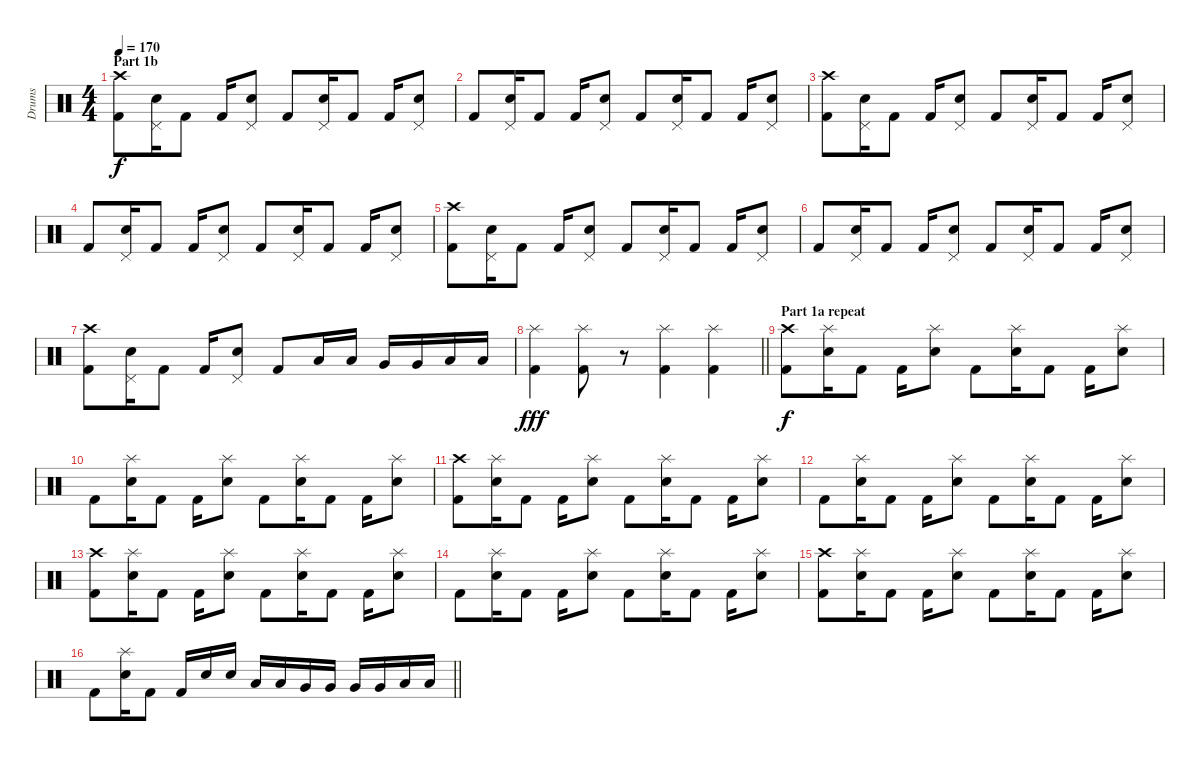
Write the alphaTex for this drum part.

\track ("Drums" "Drums") {instrument percussion}
\staff {score}
\articulation defaults
\ts (4 4)
\section ("" "Part 1b")
\tempo 170
\clef neutral
\ks c
("Kick (hit) 2" "Crash high (hit)").8{dy f} ("Electric Snare (hit)" "Pedal Hi-Hat (hit)").16 "Kick (hit) 2".8 "Kick (hit) 2".16 ("Electric Snare (hit)" "Pedal Hi-Hat (hit)").8 "Kick (hit) 2".8 ("Electric Snare (hit)" "Pedal Hi-Hat (hit)").16 "Kick (hit) 2".8 "Kick (hit) 2".16 ("Electric Snare (hit)" "Pedal Hi-Hat (hit)").8 |
"Kick (hit) 2".8 ("Electric Snare (hit)" "Pedal Hi-Hat (hit)").16 "Kick (hit) 2".8 "Kick (hit) 2".16 ("Electric Snare (hit)" "Pedal Hi-Hat (hit)").8 "Kick (hit) 2".8 ("Electric Snare (hit)" "Pedal Hi-Hat (hit)").16 "Kick (hit) 2".8 "Kick (hit) 2".16 ("Electric Snare (hit)" "Pedal Hi-Hat (hit)").8 |
("Kick (hit) 2" "Crash high (hit)").8 ("Electric Snare (hit)" "Pedal Hi-Hat (hit)").16 "Kick (hit) 2".8 "Kick (hit) 2".16 ("Electric Snare (hit)" "Pedal Hi-Hat (hit)").8 "Kick (hit) 2".8 ("Electric Snare (hit)" "Pedal Hi-Hat (hit)").16 "Kick (hit) 2".8 "Kick (hit) 2".16 ("Electric Snare (hit)" "Pedal Hi-Hat (hit)").8 |
"Kick (hit) 2".8 ("Electric Snare (hit)" "Pedal Hi-Hat (hit)").16 "Kick (hit) 2".8 "Kick (hit) 2".16 ("Electric Snare (hit)" "Pedal Hi-Hat (hit)").8 "Kick (hit) 2".8 ("Electric Snare (hit)" "Pedal Hi-Hat (hit)").16 "Kick (hit) 2".8 "Kick (hit) 2".16 ("Electric Snare (hit)" "Pedal Hi-Hat (hit)").8 |
("Kick (hit) 2" "Crash high (hit)").8 ("Electric Snare (hit)" "Pedal Hi-Hat (hit)").16 "Kick (hit) 2".8 "Kick (hit) 2".16 ("Electric Snare (hit)" "Pedal Hi-Hat (hit)").8 "Kick (hit) 2".8 ("Electric Snare (hit)" "Pedal Hi-Hat (hit)").16 "Kick (hit) 2".8 "Kick (hit) 2".16 ("Electric Snare (hit)" "Pedal Hi-Hat (hit)").8 |
"Kick (hit) 2".8 ("Electric Snare (hit)" "Pedal Hi-Hat (hit)").16 "Kick (hit) 2".8 "Kick (hit) 2".16 ("Electric Snare (hit)" "Pedal Hi-Hat (hit)").8 "Kick (hit) 2".8 ("Electric Snare (hit)" "Pedal Hi-Hat (hit)").16 "Kick (hit) 2".8 "Kick (hit) 2".16 ("Electric Snare (hit)" "Pedal Hi-Hat (hit)").8 |
("Kick (hit) 2" "Crash high (hit)").8 ("Electric Snare (hit)" "Pedal Hi-Hat (hit)").16 "Kick (hit) 2".8 "Kick (hit) 2".16 ("Electric Snare (hit)" "Pedal Hi-Hat (hit)").8 "Kick (hit) 2".8 "Low Tom (hit)".16 "Low Tom (hit)".16 "Very Low Tom (hit)".16 "Very Low Tom (hit)".16 "Low Floor Tom (hit)".16 "Low Floor Tom (hit)".16 |
\barLineRight lightlight
("Kick (hit) 2" "Splash (hit)").4{dy fff} ("Kick (hit) 2" "Splash (hit)").8 r.8 ("Kick (hit) 2" "Splash (hit)").4 ("Kick (hit) 2" "Splash (hit)").4 |
\section ("" "Part 1a repeat")
("Kick (hit) 2" "Crash high (hit)").8{dy f} ("Electric Snare (hit)" "Splash (hit)").16 "Kick (hit) 2".8 "Kick (hit) 2".16 ("Electric Snare (hit)" "Splash (hit)").8 "Kick (hit) 2".8 ("Electric Snare (hit)" "Splash (hit)").16 "Kick (hit) 2".8 "Kick (hit) 2".16 ("Electric Snare (hit)" "Splash (hit)").8 |
"Kick (hit) 2".8 ("Electric Snare (hit)" "Splash (hit)").16 "Kick (hit) 2".8 "Kick (hit) 2".16 ("Electric Snare (hit)" "Splash (hit)").8 "Kick (hit) 2".8 ("Electric Snare (hit)" "Splash (hit)").16 "Kick (hit) 2".8 "Kick (hit) 2".16 ("Electric Snare (hit)" "Splash (hit)").8 |
("Kick (hit) 2" "Crash high (hit)").8 ("Electric Snare (hit)" "Splash (hit)").16 "Kick (hit) 2".8 "Kick (hit) 2".16 ("Electric Snare (hit)" "Splash (hit)").8 "Kick (hit) 2".8 ("Electric Snare (hit)" "Splash (hit)").16 "Kick (hit) 2".8 "Kick (hit) 2".16 ("Electric Snare (hit)" "Splash (hit)").8 |
"Kick (hit) 2".8 ("Electric Snare (hit)" "Splash (hit)").16 "Kick (hit) 2".8 "Kick (hit) 2".16 ("Electric Snare (hit)" "Splash (hit)").8 "Kick (hit) 2".8 ("Electric Snare (hit)" "Splash (hit)").16 "Kick (hit) 2".8 "Kick (hit) 2".16 ("Electric Snare (hit)" "Splash (hit)").8 |
("Kick (hit) 2" "Crash high (hit)").8 ("Electric Snare (hit)" "Splash (hit)").16 "Kick (hit) 2".8 "Kick (hit) 2".16 ("Electric Snare (hit)" "Splash (hit)").8 "Kick (hit) 2".8 ("Electric Snare (hit)" "Splash (hit)").16 "Kick (hit) 2".8 "Kick (hit) 2".16 ("Electric Snare (hit)" "Splash (hit)").8 |
"Kick (hit) 2".8 ("Electric Snare (hit)" "Splash (hit)").16 "Kick (hit) 2".8 "Kick (hit) 2".16 ("Electric Snare (hit)" "Splash (hit)").8 "Kick (hit) 2".8 ("Electric Snare (hit)" "Splash (hit)").16 "Kick (hit) 2".8 "Kick (hit) 2".16 ("Electric Snare (hit)" "Splash (hit)").8 |
("Kick (hit) 2" "Crash high (hit)").8 ("Electric Snare (hit)" "Splash (hit)").16 "Kick (hit) 2".8 "Kick (hit) 2".16 ("Electric Snare (hit)" "Splash (hit)").8 "Kick (hit) 2".8 ("Electric Snare (hit)" "Splash (hit)").16 "Kick (hit) 2".8 "Kick (hit) 2".16 ("Electric Snare (hit)" "Splash (hit)").8 |
\barLineRight lightlight "Kick (hit) 2".8
("Electric Snare (hit)" "Splash (hit)").16 "Kick (hit) 2".8 "Kick (hit) 2".16 "Electric Snare (hit)".16 "Electric Snare (hit)".16 "Low Tom (hit)".16 "Low Tom (hit)".16 "Very Low Tom (hit)".16 "Very Low Tom (hit)".16 "Very Low Tom (hit)".16 "Very Low Tom (hit)".16 "Low Floor Tom (hit)".16 "Low Floor Tom (hit)".16
